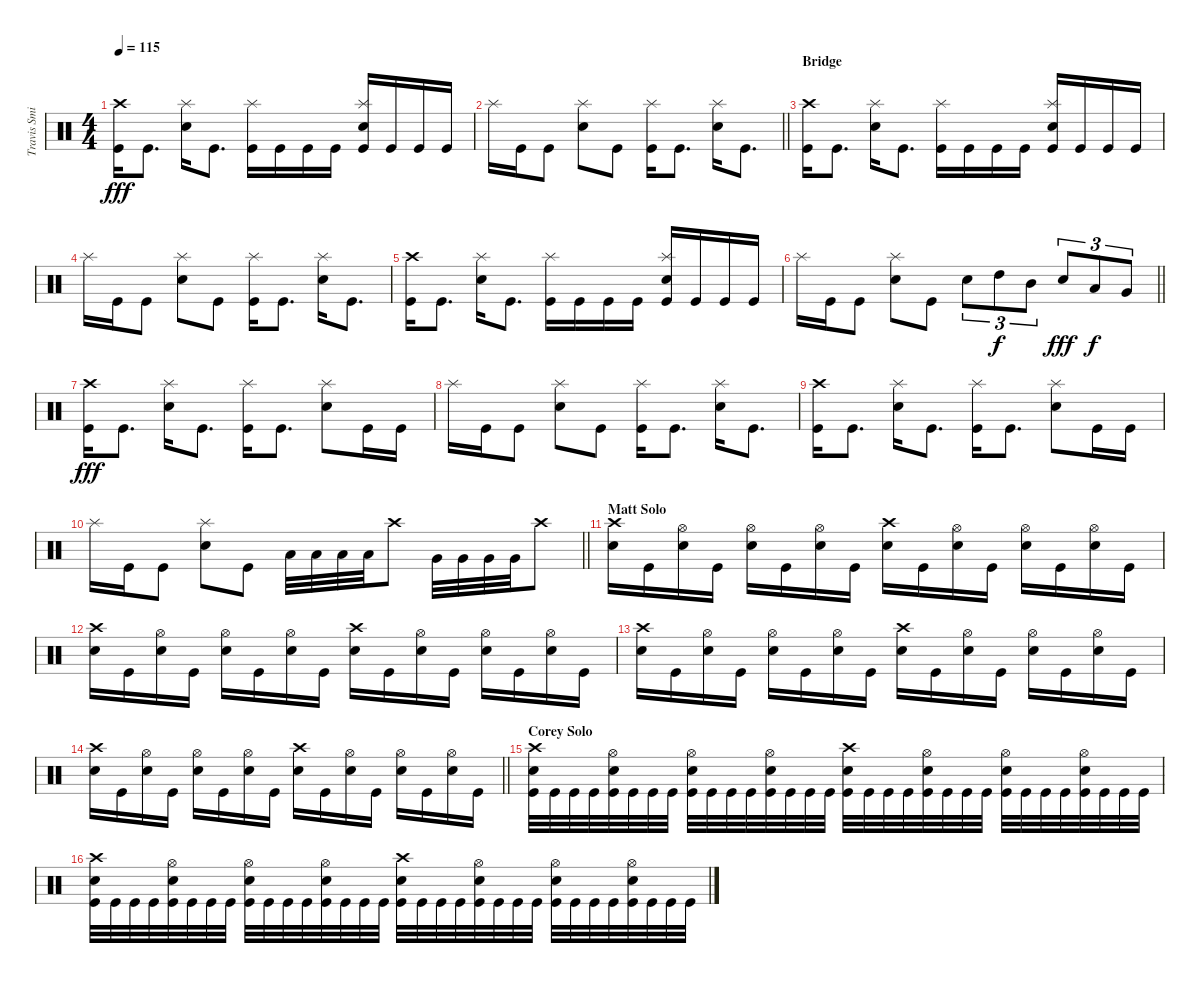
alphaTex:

\track ("Travis Smith" "Travis Smi") {instrument percussion}
\staff {score}
\articulation defaults
\ts (4 4)
\tempo 115
\clef neutral
\ks c
("Crash high (hit)" "Kick (hit)").16{dy fff} "Kick (hit)".8{d} ("Splash (hit)" "Snare (hit) 2").16 "Kick (hit)".8{d} ("Splash (hit)" "Kick (hit)").16 "Kick (hit)".16 "Kick (hit)".16 "Kick (hit)".16 ("Splash (hit)" "Snare (hit) 2" "Kick (hit)").16 "Kick (hit)".16 "Kick (hit)".16 "Kick (hit)".16 |
\barLineRight lightlight "Splash (hit)".16 "Kick (hit)".16 "Kick (hit)".8
("Splash (hit)" "Snare (hit) 2").8 "Kick (hit)".8 ("Splash (hit)" "Kick (hit)").16 "Kick (hit)".8{d} ("Splash (hit)" "Snare (hit) 2").16 "Kick (hit)".8{d} |
\section ("" "Bridge")
("Crash high (hit)" "Kick (hit)").16 "Kick (hit)".8{d} ("Splash (hit)" "Snare (hit) 2").16 "Kick (hit)".8{d} ("Splash (hit)" "Kick (hit)").16 "Kick (hit)".16 "Kick (hit)".16 "Kick (hit)".16 ("Splash (hit)" "Snare (hit) 2" "Kick (hit)").16 "Kick (hit)".16 "Kick (hit)".16 "Kick (hit)".16 |
"Splash (hit)".16 "Kick (hit)".16 "Kick (hit)".8 ("Splash (hit)" "Snare (hit) 2").8 "Kick (hit)".8 ("Splash (hit)" "Kick (hit)").16 "Kick (hit)".8{d} ("Splash (hit)" "Snare (hit) 2").16 "Kick (hit)".8{d} |
("Crash high (hit)" "Kick (hit)").16 "Kick (hit)".8{d} ("Splash (hit)" "Snare (hit) 2").16 "Kick (hit)".8{d} ("Splash (hit)" "Kick (hit)").16 "Kick (hit)".16 "Kick (hit)".16 "Kick (hit)".16 ("Splash (hit)" "Snare (hit) 2" "Kick (hit)").16 "Kick (hit)".16 "Kick (hit)".16 "Kick (hit)".16 |
\barLineRight lightlight "Splash (hit)".16 "Kick (hit)".16 "Kick (hit)".8
("Splash (hit)" "Snare (hit) 2").8 "Kick (hit)".8 "Snare (hit) 2".8{tu (3 2)} "High Tom (hit)".8{tu (3 2) dy f} "Mid Tom (hit)".8{tu (3 2)} "Snare (hit) 2".8{tu (3 2) dy fff} "Low Tom (hit)".8{tu (3 2) dy f} "Very Low Tom (hit)".8{tu (3 2)} |
("Crash high (hit)" "Kick (hit)").16{dy fff} "Kick (hit)".8{d} ("Splash (hit)" "Snare (hit) 2").16 "Kick (hit)".8{d} ("Splash (hit)" "Kick (hit)").16 "Kick (hit)".8{d} ("Splash (hit)" "Snare (hit) 2").8 "Kick (hit)".16 "Kick (hit)".16 |
"Splash (hit)".16 "Kick (hit)".16 "Kick (hit)".8 ("Splash (hit)" "Snare (hit) 2").8 "Kick (hit)".8 ("Splash (hit)" "Kick (hit)").16 "Kick (hit)".8{d} ("Splash (hit)" "Snare (hit) 2").16 "Kick (hit)".8{d} |
("Crash high (hit)" "Kick (hit)").16 "Kick (hit)".8{d} ("Splash (hit)" "Snare (hit) 2").16 "Kick (hit)".8{d} ("Splash (hit)" "Kick (hit)").16 "Kick (hit)".8{d} ("Splash (hit)" "Snare (hit) 2").8 "Kick (hit)".16 "Kick (hit)".16 |
\barLineRight lightlight "Splash (hit)".16 "Kick (hit)".16 "Kick (hit)".8
("Splash (hit)" "Snare (hit) 2").8 "Kick (hit)".8 "Low Tom (hit)".32 "Low Tom (hit)".32 "Low Tom (hit)".32 "Low Tom (hit)".32 "Crash high (hit)".8 "Very Low Tom (hit)".32 "Very Low Tom (hit)".32 "Very Low Tom (hit)".32 "Very Low Tom (hit)".32 "Crash high (hit)".8 |
\section ("" "Matt Solo")
("Crash high (hit)" "Snare (hit) 2").16 "Kick (hit)".16 ("Hi-Hat (open)" "Snare (hit) 2").16 "Kick (hit)".16 ("Hi-Hat (open)" "Snare (hit) 2").16 "Kick (hit)".16 ("Hi-Hat (open)" "Snare (hit) 2").16 "Kick (hit)".16 ("Crash high (hit)" "Snare (hit) 2").16 "Kick (hit)".16 ("Hi-Hat (open)" "Snare (hit) 2").16 "Kick (hit)".16 ("Hi-Hat (open)" "Snare (hit) 2").16 "Kick (hit)".16 ("Hi-Hat (open)" "Snare (hit) 2").16 "Kick (hit)".16 |
("Crash high (hit)" "Snare (hit) 2").16 "Kick (hit)".16 ("Hi-Hat (open)" "Snare (hit) 2").16 "Kick (hit)".16 ("Hi-Hat (open)" "Snare (hit) 2").16 "Kick (hit)".16 ("Hi-Hat (open)" "Snare (hit) 2").16 "Kick (hit)".16 ("Crash high (hit)" "Snare (hit) 2").16 "Kick (hit)".16 ("Hi-Hat (open)" "Snare (hit) 2").16 "Kick (hit)".16 ("Hi-Hat (open)" "Snare (hit) 2").16 "Kick (hit)".16 ("Hi-Hat (open)" "Snare (hit) 2").16 "Kick (hit)".16 |
("Crash high (hit)" "Snare (hit) 2").16 "Kick (hit)".16 ("Hi-Hat (open)" "Snare (hit) 2").16 "Kick (hit)".16 ("Hi-Hat (open)" "Snare (hit) 2").16 "Kick (hit)".16 ("Hi-Hat (open)" "Snare (hit) 2").16 "Kick (hit)".16 ("Crash high (hit)" "Snare (hit) 2").16 "Kick (hit)".16 ("Hi-Hat (open)" "Snare (hit) 2").16 "Kick (hit)".16 ("Hi-Hat (open)" "Snare (hit) 2").16 "Kick (hit)".16 ("Hi-Hat (open)" "Snare (hit) 2").16 "Kick (hit)".16 |
\barLineRight lightlight
("Crash high (hit)" "Snare (hit) 2").16 "Kick (hit)".16 ("Hi-Hat (open)" "Snare (hit) 2").16 "Kick (hit)".16 ("Hi-Hat (open)" "Snare (hit) 2").16 "Kick (hit)".16 ("Hi-Hat (open)" "Snare (hit) 2").16 "Kick (hit)".16 ("Crash high (hit)" "Snare (hit) 2").16 "Kick (hit)".16 ("Hi-Hat (open)" "Snare (hit) 2").16 "Kick (hit)".16 ("Hi-Hat (open)" "Snare (hit) 2").16 "Kick (hit)".16 ("Hi-Hat (open)" "Snare (hit) 2").16 "Kick (hit)".16 |
\section ("" "Corey Solo")
("Crash high (hit)" "Snare (hit) 2" "Kick (hit)").32 "Kick (hit)".32 "Kick (hit)".32 "Kick (hit)".32 ("Hi-Hat (open)" "Snare (hit) 2" "Kick (hit)").32 "Kick (hit)".32 "Kick (hit)".32 "Kick (hit)".32 ("Hi-Hat (open)" "Snare (hit) 2" "Kick (hit)").32 "Kick (hit)".32 "Kick (hit)".32 "Kick (hit)".32 ("Hi-Hat (open)" "Snare (hit) 2" "Kick (hit)").32 "Kick (hit)".32 "Kick (hit)".32 "Kick (hit)".32 ("Crash high (hit)" "Snare (hit) 2" "Kick (hit)").32 "Kick (hit)".32 "Kick (hit)".32 "Kick (hit)".32 ("Hi-Hat (open)" "Snare (hit) 2" "Kick (hit)").32 "Kick (hit)".32 "Kick (hit)".32 "Kick (hit)".32 ("Hi-Hat (open)" "Snare (hit) 2" "Kick (hit)").32 "Kick (hit)".32 "Kick (hit)".32 "Kick (hit)".32 ("Hi-Hat (open)" "Snare (hit) 2" "Kick (hit)").32 "Kick (hit)".32 "Kick (hit)".32 "Kick (hit)".32 |
("Crash high (hit)" "Snare (hit) 2" "Kick (hit)").32 "Kick (hit)".32 "Kick (hit)".32 "Kick (hit)".32 ("Hi-Hat (open)" "Snare (hit) 2" "Kick (hit)").32 "Kick (hit)".32 "Kick (hit)".32 "Kick (hit)".32 ("Hi-Hat (open)" "Snare (hit) 2" "Kick (hit)").32 "Kick (hit)".32 "Kick (hit)".32 "Kick (hit)".32 ("Hi-Hat (open)" "Snare (hit) 2" "Kick (hit)").32 "Kick (hit)".32 "Kick (hit)".32 "Kick (hit)".32 ("Crash high (hit)" "Snare (hit) 2" "Kick (hit)").32 "Kick (hit)".32 "Kick (hit)".32 "Kick (hit)".32 ("Hi-Hat (open)" "Snare (hit) 2" "Kick (hit)").32 "Kick (hit)".32 "Kick (hit)".32 "Kick (hit)".32 ("Hi-Hat (open)" "Snare (hit) 2" "Kick (hit)").32 "Kick (hit)".32 "Kick (hit)".32 "Kick (hit)".32 ("Hi-Hat (open)" "Snare (hit) 2" "Kick (hit)").32 "Kick (hit)".32 "Kick (hit)".32 "Kick (hit)".32
